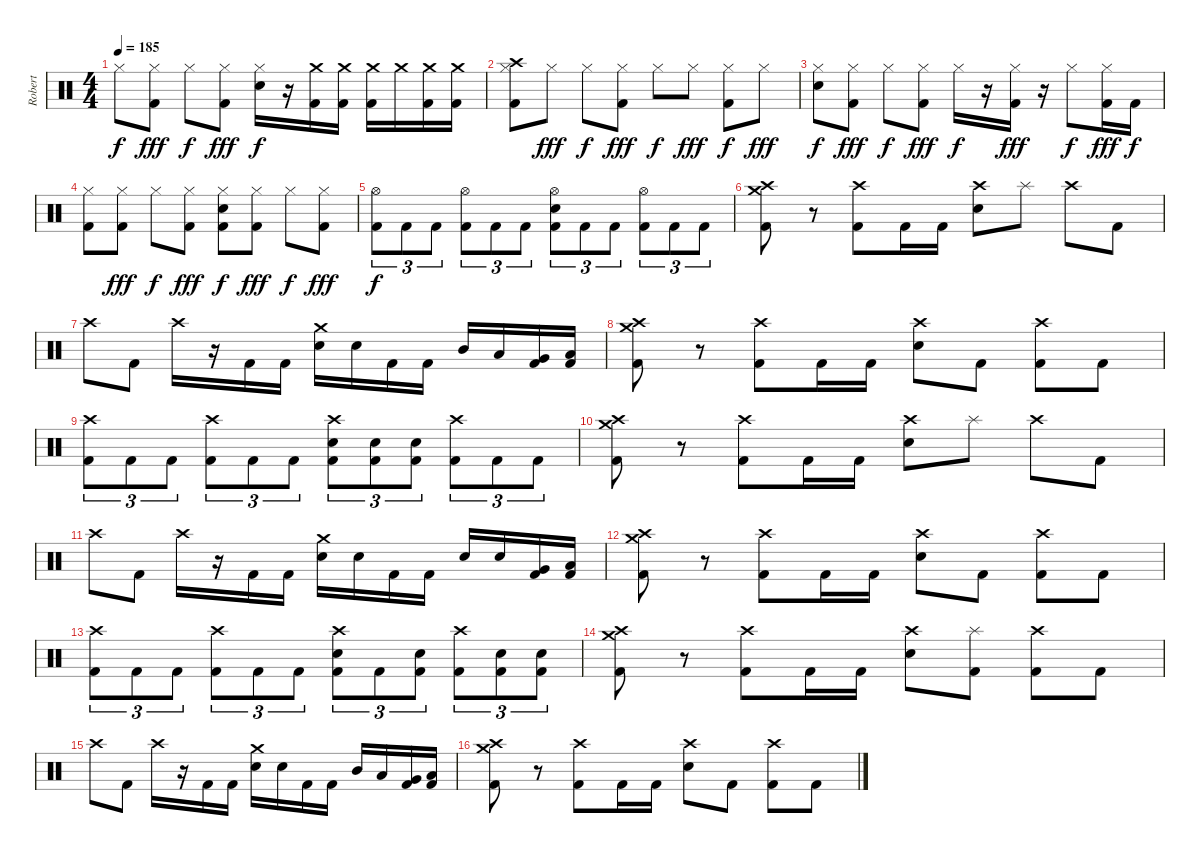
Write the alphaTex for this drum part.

\track ("Robert" "Robert") {instrument percussion}
\staff {score}
\articulation defaults
\ts (4 4)
\tempo 185
\clef neutral
\ks c "Hi-Hat (closed)".8{dy f}
("Kick (hit) 2" "Hi-Hat (closed)").8{dy fff} "Hi-Hat (closed)".8{dy f} ("Kick (hit) 2" "Hi-Hat (closed)").8{dy fff} ("Hi-Hat (closed)" "Electric Snare (hit)").16{dy f} r.16 ("Kick (hit) 2" "Crash medium (hit)").16 ("Kick (hit) 2" "Crash medium (hit)").16 ("Kick (hit) 2" "Crash medium (hit)").16 "Crash medium (hit)".16 ("Kick (hit) 2" "Crash medium (hit)").16 ("Kick (hit) 2" "Crash medium (hit)").16 |
("Crash high (hit)" "Hi-Hat (closed)" "Kick (hit) 2").8 "Hi-Hat (closed)".8{dy fff} "Hi-Hat (closed)".8{dy f} ("Hi-Hat (closed)" "Kick (hit) 2").8{dy fff} "Hi-Hat (closed)".8{dy f} "Hi-Hat (closed)".8{dy fff} ("Hi-Hat (closed)" "Kick (hit) 2").8{dy f} "Hi-Hat (closed)".8{dy fff} |
("Hi-Hat (closed)" "Electric Snare (hit)").8{dy f} ("Kick (hit) 2" "Hi-Hat (closed)").8{dy fff} "Hi-Hat (closed)".8{dy f} ("Hi-Hat (closed)" "Kick (hit) 2").8{dy fff} "Hi-Hat (closed)".16{dy f} r.16 ("Hi-Hat (closed)" "Kick (hit) 2").16{dy fff} r.16 "Hi-Hat (closed)".8{dy f} ("Hi-Hat (closed)" "Kick (hit) 2").16{dy fff} "Kick (hit) 2".16{dy f} |
("Hi-Hat (closed)" "Kick (hit) 2").8 ("Hi-Hat (closed)" "Kick (hit) 2").8{dy fff} "Hi-Hat (closed)".8{dy f} ("Hi-Hat (closed)" "Kick (hit) 2").8{dy fff} ("Hi-Hat (closed)" "Electric Snare (hit)" "Kick (hit) 2").8{dy f} ("Hi-Hat (closed)" "Kick (hit) 2").8{dy fff} "Hi-Hat (closed)".8{dy f} ("Hi-Hat (closed)" "Kick (hit) 2").8{dy fff} |
("Kick (hit) 2" "Hi-Hat (open)").8{tu (3 2) dy f} "Kick (hit) 2".8{tu (3 2)} "Kick (hit) 2".8{tu (3 2)} ("Kick (hit) 2" "Hi-Hat (open)").8{tu (3 2)} "Kick (hit) 2".8{tu (3 2)} "Kick (hit) 2".8{tu (3 2)} ("Kick (hit) 2" "Electric Snare (hit)" "Hi-Hat (open)").8{tu (3 2)} "Kick (hit) 2".8{tu (3 2)} "Kick (hit) 2".8{tu (3 2)} ("Kick (hit) 2" "Hi-Hat (open)").8{tu (3 2)} "Kick (hit) 2".8{tu (3 2)} "Kick (hit) 2".8{tu (3 2)} |
("Kick (hit) 2" "Crash medium (hit)" "Crash high (hit)").8 r.8 ("Kick (hit) 2" "Crash high (hit)").8 "Kick (hit) 2".16 "Kick (hit) 2".16 ("Electric Snare (hit)" "Crash high (hit)").8 "Splash (hit)".8 "Crash high (hit)".8 "Kick (hit) 2".8 |
"Crash high (hit)".8 "Kick (hit) 2".8 "Crash high (hit)".16 r.16 "Kick (hit) 2".16 "Kick (hit) 2".16 ("Electric Snare (hit)" "Crash medium (hit)").16 "Electric Snare (hit)".16 "Kick (hit) 2".16 "Kick (hit) 2".16 "Mid Tom (hit)".16 "Low Tom (hit)".16 ("Very Low Tom (hit)" "Kick (hit) 2").16 ("Low Floor Tom (hit)" "Kick (hit) 2").16 |
("Kick (hit) 2" "Crash medium (hit)" "Crash high (hit)").8 r.8 ("Kick (hit) 2" "Crash high (hit)").8 "Kick (hit) 2".16 "Kick (hit) 2".16 ("Electric Snare (hit)" "Crash high (hit)").8 "Kick (hit) 2".8 ("Crash high (hit)" "Kick (hit) 2").8 "Kick (hit) 2".8 |
("Kick (hit) 2" "Crash high (hit)").8{tu (3 2)} "Kick (hit) 2".8{tu (3 2)} "Kick (hit) 2".8{tu (3 2)} ("Kick (hit) 2" "Crash high (hit)").8{tu (3 2)} "Kick (hit) 2".8{tu (3 2)} "Kick (hit) 2".8{tu (3 2)} ("Kick (hit) 2" "Electric Snare (hit)" "Crash high (hit)").8{tu (3 2)} ("Kick (hit) 2" "Electric Snare (hit)").8{tu (3 2)} ("Kick (hit) 2" "Electric Snare (hit)").8{tu (3 2)} ("Kick (hit) 2" "Crash high (hit)").8{tu (3 2)} "Kick (hit) 2".8{tu (3 2)} "Kick (hit) 2".8{tu (3 2)} |
("Kick (hit) 2" "Crash medium (hit)" "Crash high (hit)").8 r.8 ("Kick (hit) 2" "Crash high (hit)").8 "Kick (hit) 2".16 "Kick (hit) 2".16 ("Electric Snare (hit)" "Crash high (hit)").8 "Splash (hit)".8 "Crash high (hit)".8 "Kick (hit) 2".8 |
"Crash high (hit)".8 "Kick (hit) 2".8 "Crash high (hit)".16 r.16 "Kick (hit) 2".16 "Kick (hit) 2".16 ("Electric Snare (hit)" "Crash medium (hit)").16 "Electric Snare (hit)".16 "Kick (hit) 2".16 "Kick (hit) 2".16 "Electric Snare (hit)".16 "Electric Snare (hit)".16 ("Very Low Tom (hit)" "Kick (hit) 2").16 ("Low Floor Tom (hit)" "Kick (hit) 2").16 |
("Kick (hit) 2" "Crash medium (hit)" "Crash high (hit)").8 r.8 ("Kick (hit) 2" "Crash high (hit)").8 "Kick (hit) 2".16 "Kick (hit) 2".16 ("Electric Snare (hit)" "Crash high (hit)").8 "Kick (hit) 2".8 ("Crash high (hit)" "Kick (hit) 2").8 "Kick (hit) 2".8 |
("Kick (hit) 2" "Crash high (hit)").8{tu (3 2)} "Kick (hit) 2".8{tu (3 2)} "Kick (hit) 2".8{tu (3 2)} ("Kick (hit) 2" "Crash high (hit)").8{tu (3 2)} "Kick (hit) 2".8{tu (3 2)} "Kick (hit) 2".8{tu (3 2)} ("Kick (hit) 2" "Electric Snare (hit)" "Crash high (hit)").8{tu (3 2)} "Kick (hit) 2".8{tu (3 2)} ("Kick (hit) 2" "Electric Snare (hit)").8{tu (3 2)} ("Kick (hit) 2" "Crash high (hit)").8{tu (3 2)} ("Kick (hit) 2" "Electric Snare (hit)").8{tu (3 2)} ("Kick (hit) 2" "Electric Snare (hit)").8{tu (3 2)} |
("Kick (hit) 2" "Crash medium (hit)" "Crash high (hit)").8 r.8 ("Kick (hit) 2" "Crash high (hit)").8 "Kick (hit) 2".16 "Kick (hit) 2".16 ("Electric Snare (hit)" "Crash high (hit)").8 ("Splash (hit)" "Kick (hit) 2").8 ("Crash high (hit)" "Kick (hit) 2").8 "Kick (hit) 2".8 |
"Crash high (hit)".8 "Kick (hit) 2".8 "Crash high (hit)".16 r.16 "Kick (hit) 2".16 "Kick (hit) 2".16 ("Electric Snare (hit)" "Crash medium (hit)").16 "Electric Snare (hit)".16 "Kick (hit) 2".16 "Kick (hit) 2".16 "Mid Tom (hit)".16 "Low Tom (hit)".16 ("Very Low Tom (hit)" "Kick (hit) 2").16 ("Low Floor Tom (hit)" "Kick (hit) 2").16 |
("Kick (hit) 2" "Crash medium (hit)" "Crash high (hit)").8 r.8 ("Kick (hit) 2" "Crash high (hit)").8 "Kick (hit) 2".16 "Kick (hit) 2".16 ("Electric Snare (hit)" "Crash high (hit)").8 "Kick (hit) 2".8 ("Crash high (hit)" "Kick (hit) 2").8 "Kick (hit) 2".8
